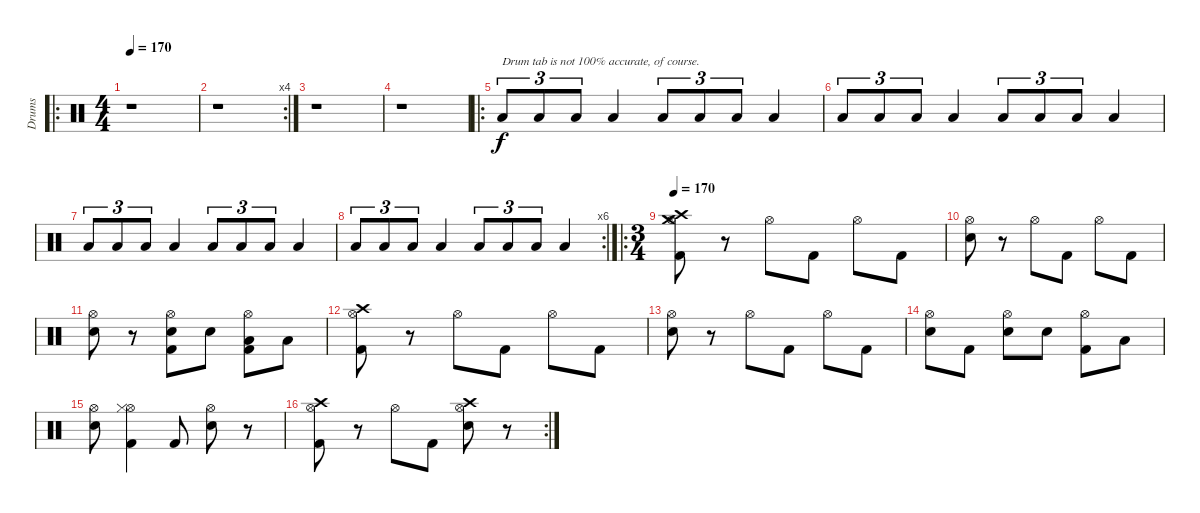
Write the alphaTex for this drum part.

\track ("Drums" "Drums") {instrument percussion}
\staff {score}
\articulation defaults
\ro
\ts (4 4)
\tempo 170
\tempo 110
\tempo 170
\clef neutral
\ks c
r.1{dy f} |
\rc 4
r.1 |
r.1 |
r.1 |
\ro "Low Floor Tom (hit)".8{tu (3 2) txt "Drum tab is not 100% accurate, of course."} "Low Floor Tom (hit)".8{tu (3 2)} "Low Floor Tom (hit)".8{tu (3 2)} "Low Floor Tom (hit)".4 "Low Floor Tom (hit)".8{tu (3 2)} "Low Floor Tom (hit)".8{tu (3 2)} "Low Floor Tom (hit)".8{tu (3 2)} "Low Floor Tom (hit)".4
|
"Low Floor Tom (hit)".8{tu (3 2)} "Low Floor Tom (hit)".8{tu (3 2)} "Low Floor Tom (hit)".8{tu (3 2)} "Low Floor Tom (hit)".4 "Low Floor Tom (hit)".8{tu (3 2)} "Low Floor Tom (hit)".8{tu (3 2)} "Low Floor Tom (hit)".8{tu (3 2)} "Low Floor Tom (hit)".4 |
"Low Floor Tom (hit)".8{tu (3 2)} "Low Floor Tom (hit)".8{tu (3 2)} "Low Floor Tom (hit)".8{tu (3 2)} "Low Floor Tom (hit)".4 "Low Floor Tom (hit)".8{tu (3 2)} "Low Floor Tom (hit)".8{tu (3 2)} "Low Floor Tom (hit)".8{tu (3 2)} "Low Floor Tom (hit)".4 |
\rc 6 "Low Floor Tom (hit)".8{tu (3 2)} "Low Floor Tom (hit)".8{tu (3 2)} "Low Floor Tom (hit)".8{tu (3 2)} "Low Floor Tom (hit)".4 "Low Floor Tom (hit)".8{tu (3 2)} "Low Floor Tom (hit)".8{tu (3 2)} "Low Floor Tom (hit)".8{tu (3 2)} "Low Floor Tom (hit)".4
|
\ro
\ts (3 4)
\tempo 170
("Hi-Hat (open)" "Crash high (hit)" "Crash medium (hit)" "Kick (hit) 2").8 r.8 "Hi-Hat (open)".8 "Kick (hit) 2".8 "Hi-Hat (open)".8 "Kick (hit) 2".8 |
("Hi-Hat (open)" "Electric Snare (hit)").8 r.8 "Hi-Hat (open)".8 "Kick (hit) 2".8 "Hi-Hat (open)".8 "Kick (hit) 2".8 |
("Hi-Hat (open)" "Electric Snare (hit)").8 r.8 ("Hi-Hat (open)" "Electric Snare (hit)" "Kick (hit) 2").8 "Electric Snare (hit)".8 ("Hi-Hat (open)" "Low Tom (hit)" "Kick (hit) 2").8 "Low Tom (hit)".8 |
("Hi-Hat (open)" "Crash high (hit)" "Kick (hit) 2").8 r.8 "Hi-Hat (open)".8 "Kick (hit) 2".8 "Hi-Hat (open)".8 "Kick (hit) 2".8 |
("Hi-Hat (open)" "Electric Snare (hit)").8 r.8 "Hi-Hat (open)".8 "Kick (hit) 2".8 "Hi-Hat (open)".8 "Kick (hit) 2".8 |
("Hi-Hat (open)" "Electric Snare (hit)").8 "Kick (hit) 2".8 ("Hi-Hat (open)" "Electric Snare (hit)").8 "Electric Snare (hit)".8 ("Hi-Hat (open)" "Kick (hit) 2").8 "Low Tom (hit)".8 |
("Hi-Hat (open)" "Electric Snare (hit)").8 ("Hi-Hat (open)" "Hi-Hat (closed)" "Kick (hit) 2").4 "Kick (hit) 2".8 ("Hi-Hat (open)" "Electric Snare (hit)").8 r.8 |
\rc 2
("Hi-Hat (open)" "Crash high (hit)" "Kick (hit) 2").8 r.8 "Hi-Hat (open)".8 "Kick (hit) 2".8 ("Hi-Hat (open)" "Electric Snare (hit)" "Crash high (hit)").8 r.8
